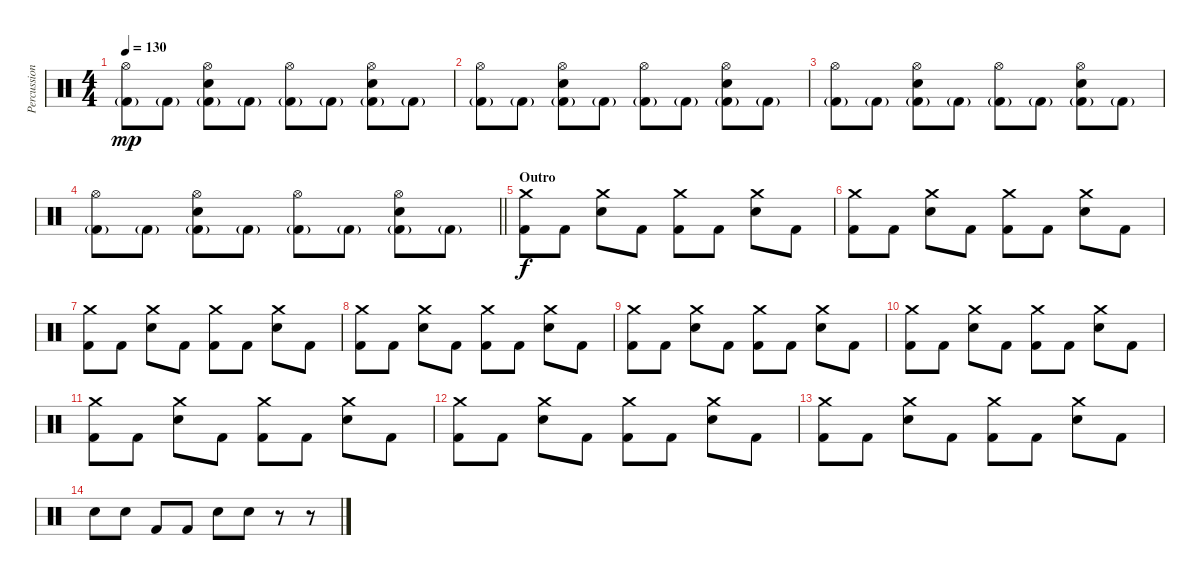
\track ("Percussions" "Percussion") {instrument percussion}
\staff {score}
\articulation defaults
\ts (4 4)
\tempo 130
\clef neutral
\ks c
("Hi-Hat (open)" "Kick (hit) 2"{g}).8{dy mp} "Kick (hit) 2"{g}.8 ("Hi-Hat (open)" "Electric Snare (hit)" "Kick (hit) 2"{g}).8 "Kick (hit) 2"{g}.8 ("Hi-Hat (open)" "Kick (hit) 2"{g}).8 "Kick (hit) 2"{g}.8 ("Hi-Hat (open)" "Electric Snare (hit)" "Kick (hit) 2"{g}).8 "Kick (hit) 2"{g}.8 |
("Hi-Hat (open)" "Kick (hit) 2"{g}).8 "Kick (hit) 2"{g}.8 ("Hi-Hat (open)" "Electric Snare (hit)" "Kick (hit) 2"{g}).8 "Kick (hit) 2"{g}.8 ("Hi-Hat (open)" "Kick (hit) 2"{g}).8 "Kick (hit) 2"{g}.8 ("Hi-Hat (open)" "Electric Snare (hit)" "Kick (hit) 2"{g}).8 "Kick (hit) 2"{g}.8 |
("Hi-Hat (open)" "Kick (hit) 2"{g}).8 "Kick (hit) 2"{g}.8 ("Hi-Hat (open)" "Electric Snare (hit)" "Kick (hit) 2"{g}).8 "Kick (hit) 2"{g}.8 ("Hi-Hat (open)" "Kick (hit) 2"{g}).8 "Kick (hit) 2"{g}.8 ("Hi-Hat (open)" "Electric Snare (hit)" "Kick (hit) 2"{g}).8 "Kick (hit) 2"{g}.8 |
\barLineRight lightlight
("Hi-Hat (open)" "Kick (hit) 2"{g}).8 "Kick (hit) 2"{g}.8 ("Hi-Hat (open)" "Electric Snare (hit)" "Kick (hit) 2"{g}).8 "Kick (hit) 2"{g}.8 ("Hi-Hat (open)" "Kick (hit) 2"{g}).8 "Kick (hit) 2"{g}.8 ("Hi-Hat (open)" "Electric Snare (hit)" "Kick (hit) 2"{g}).8 "Kick (hit) 2"{g}.8 |
\section ("" "Outro")
("Crash medium (hit)" "Kick (hit) 2").8{dy f} "Kick (hit) 2".8 ("Crash medium (hit)" "Electric Snare (hit)").8 "Kick (hit) 2".8 ("Crash medium (hit)" "Kick (hit) 2").8 "Kick (hit) 2".8 ("Crash medium (hit)" "Electric Snare (hit)").8 "Kick (hit) 2".8 |
("Crash medium (hit)" "Kick (hit) 2").8 "Kick (hit) 2".8 ("Crash medium (hit)" "Electric Snare (hit)").8 "Kick (hit) 2".8 ("Crash medium (hit)" "Kick (hit) 2").8 "Kick (hit) 2".8 ("Crash medium (hit)" "Electric Snare (hit)").8 "Kick (hit) 2".8 |
("Crash medium (hit)" "Kick (hit) 2").8 "Kick (hit) 2".8 ("Crash medium (hit)" "Electric Snare (hit)").8 "Kick (hit) 2".8 ("Crash medium (hit)" "Kick (hit) 2").8 "Kick (hit) 2".8 ("Crash medium (hit)" "Electric Snare (hit)").8 "Kick (hit) 2".8 |
("Crash medium (hit)" "Kick (hit) 2").8 "Kick (hit) 2".8 ("Crash medium (hit)" "Electric Snare (hit)").8 "Kick (hit) 2".8 ("Crash medium (hit)" "Kick (hit) 2").8 "Kick (hit) 2".8 ("Crash medium (hit)" "Electric Snare (hit)").8 "Kick (hit) 2".8 |
("Crash medium (hit)" "Kick (hit) 2").8 "Kick (hit) 2".8 ("Crash medium (hit)" "Electric Snare (hit)").8 "Kick (hit) 2".8 ("Crash medium (hit)" "Kick (hit) 2").8 "Kick (hit) 2".8 ("Crash medium (hit)" "Electric Snare (hit)").8 "Kick (hit) 2".8 |
("Crash medium (hit)" "Kick (hit) 2").8 "Kick (hit) 2".8 ("Crash medium (hit)" "Electric Snare (hit)").8 "Kick (hit) 2".8 ("Crash medium (hit)" "Kick (hit) 2").8 "Kick (hit) 2".8 ("Crash medium (hit)" "Electric Snare (hit)").8 "Kick (hit) 2".8 |
("Crash medium (hit)" "Kick (hit) 2").8 "Kick (hit) 2".8 ("Crash medium (hit)" "Electric Snare (hit)").8 "Kick (hit) 2".8 ("Crash medium (hit)" "Kick (hit) 2").8 "Kick (hit) 2".8 ("Crash medium (hit)" "Electric Snare (hit)").8 "Kick (hit) 2".8 |
("Crash medium (hit)" "Kick (hit) 2").8 "Kick (hit) 2".8 ("Crash medium (hit)" "Electric Snare (hit)").8 "Kick (hit) 2".8 ("Crash medium (hit)" "Kick (hit) 2").8 "Kick (hit) 2".8 ("Crash medium (hit)" "Electric Snare (hit)").8 "Kick (hit) 2".8 |
("Crash medium (hit)" "Kick (hit) 2").8 "Kick (hit) 2".8 ("Crash medium (hit)" "Electric Snare (hit)").8 "Kick (hit) 2".8 ("Crash medium (hit)" "Kick (hit) 2").8 "Kick (hit) 2".8 ("Crash medium (hit)" "Electric Snare (hit)").8 "Kick (hit) 2".8 |
"Electric Snare (hit)".8 "Electric Snare (hit)".8 "Kick (hit) 2".8 "Kick (hit) 2".8 "Electric Snare (hit)".8 "Electric Snare (hit)".8 r.8 r.8
